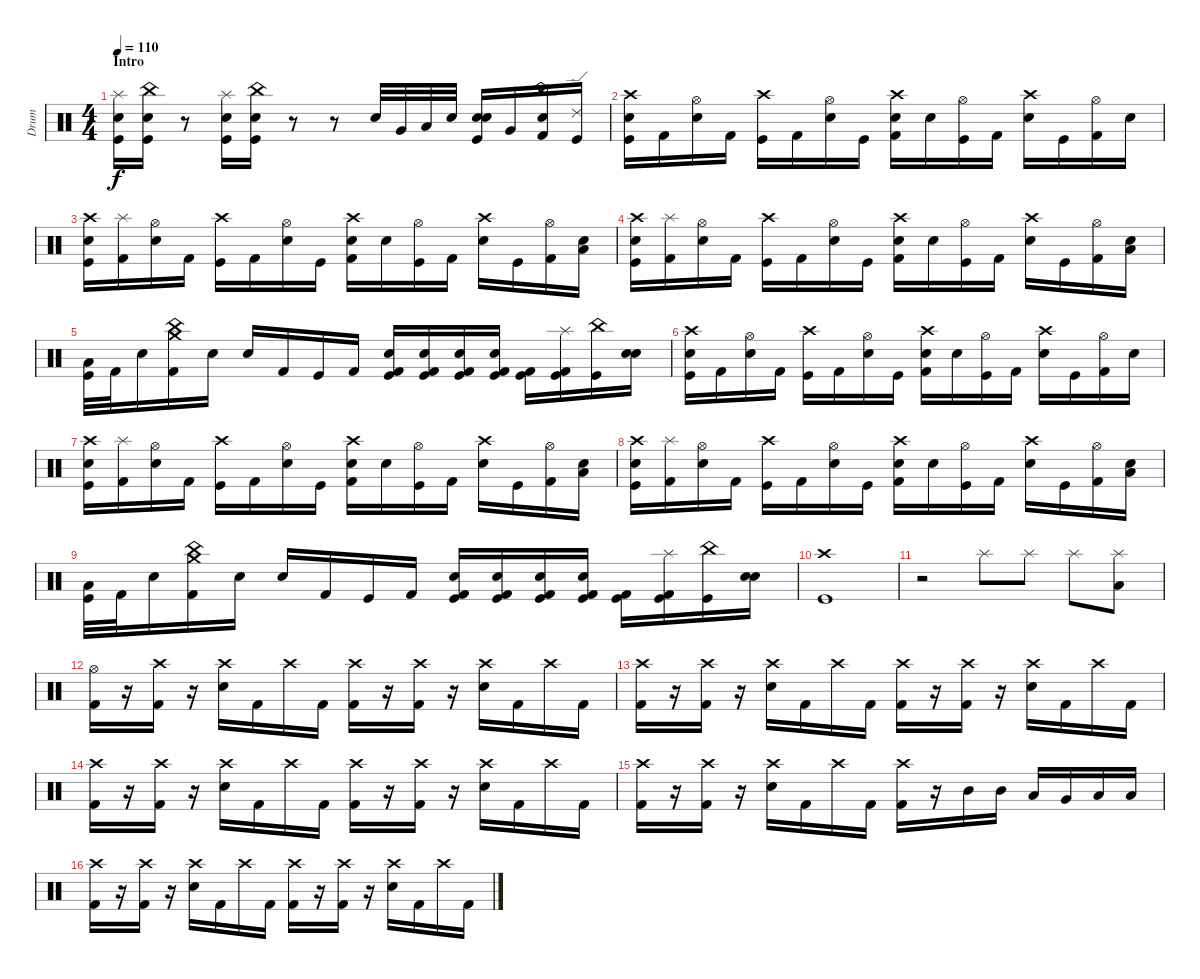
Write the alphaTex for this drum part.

\track ("Drum" "Drum") {instrument percussion}
\staff {score}
\articulation defaults
\ts (4 4)
\section ("" "Intro")
\tempo 110
\clef neutral
\ks c
("Splash (hit)" "Electric Snare (hit)" "Kick (hit)").16{dy f} ("China (hit)" "Electric Snare (hit)" "Kick (hit)").16 r.8 ("Splash (hit)" "Electric Snare (hit)" "Kick (hit)").16 ("China (hit)" "Electric Snare (hit)" "Kick (hit)").16 r.8 r.8 "Snare (hit) 2".32 "Very Low Tom (hit)".32 "Low Tom (hit)".32 "Electric Snare (hit)".32 ("Snare (hit)" "Electric Snare (hit)" "Kick (hit)").16 "Very Low Tom (hit)".16 ("China (hit)" "Electric Snare (hit)" "Kick (hit) 2").16 ("Ride (edge) 2" "Kick (hit)").16 |
("Crash high (hit)" "Snare (hit)" "Kick (hit)").16 "Kick (hit) 2".16 ("Hi-Hat (open)" "Snare (hit) 2").16 "Kick (hit) 2".16 ("Crash high (hit)" "Kick (hit)").16 "Kick (hit) 2".16 ("Hi-Hat (open)" "Snare (hit) 2").16 "Kick (hit)".16 ("Crash high (hit)" "Snare (hit)" "Kick (hit) 2").16 "Snare (hit) 2".16 ("Hi-Hat (open)" "Kick (hit)").16 "Kick (hit) 2".16 ("Crash high (hit)" "Snare (hit) 2").16 "Kick (hit)".16 ("Hi-Hat (open)" "Kick (hit) 2").16 "Snare (hit) 2".16 |
("Crash high (hit)" "Snare (hit)" "Kick (hit)").16 ("Splash (hit)" "Kick (hit) 2").16 ("Hi-Hat (open)" "Snare (hit) 2").16 "Kick (hit) 2".16 ("Crash high (hit)" "Kick (hit)").16 "Kick (hit) 2".16 ("Hi-Hat (open)" "Snare (hit) 2").16 "Kick (hit)".16 ("Crash high (hit)" "Snare (hit)" "Kick (hit) 2").16 "Snare (hit) 2".16 ("Hi-Hat (open)" "Kick (hit)").16 "Kick (hit) 2".16 ("Crash high (hit)" "Snare (hit) 2").16 "Kick (hit)".16 ("Hi-Hat (open)" "Kick (hit) 2").16 ("Low Tom (hit)" "Snare (hit) 2").16 |
("Crash high (hit)" "Snare (hit)" "Kick (hit)").16 ("Splash (hit)" "Kick (hit) 2").16 ("Hi-Hat (open)" "Snare (hit) 2").16 "Kick (hit) 2".16 ("Crash high (hit)" "Kick (hit)").16 "Kick (hit) 2".16 ("Hi-Hat (open)" "Snare (hit) 2").16 "Kick (hit)".16 ("Crash high (hit)" "Snare (hit)" "Kick (hit) 2").16 "Snare (hit) 2".16 ("Hi-Hat (open)" "Kick (hit)").16 "Kick (hit) 2".16 ("Crash high (hit)" "Snare (hit) 2").16 "Kick (hit)".16 ("Hi-Hat (open)" "Kick (hit) 2").16 ("Low Tom (hit)" "Snare (hit) 2").16 |
("Low Tom (hit)" "Kick (hit)").32 "Kick (hit) 2".32 "Snare (hit) 2".16 ("China (hit)" "Crash medium (hit)" "Kick (hit) 2").16 "Snare (hit) 2".16 "Snare (hit) 2".16 "Kick (hit) 2".16 "Kick (hit)".16 "Kick (hit) 2".16 ("Snare (hit) 2" "Kick (hit) 2" "Kick (hit)").16 ("Snare (hit) 2" "Kick (hit) 2" "Kick (hit)").16 ("Snare (hit) 2" "Kick (hit) 2" "Kick (hit)").16 ("Snare (hit) 2" "Kick (hit) 2" "Kick (hit)").16 ("Kick (hit) 2" "Kick (hit)").16 ("Splash (hit)" "Kick (hit) 2" "Kick (hit)").16 ("China (hit)" "Kick (hit)").16 ("Electric Snare (hit)" "Snare (hit) 2").16 |
("Crash high (hit)" "Snare (hit)" "Kick (hit)").16 "Kick (hit) 2".16 ("Hi-Hat (open)" "Snare (hit) 2").16 "Kick (hit) 2".16 ("Crash high (hit)" "Kick (hit)").16 "Kick (hit) 2".16 ("Hi-Hat (open)" "Snare (hit) 2").16 "Kick (hit)".16 ("Crash high (hit)" "Snare (hit)" "Kick (hit) 2").16 "Snare (hit) 2".16 ("Hi-Hat (open)" "Kick (hit)").16 "Kick (hit) 2".16 ("Crash high (hit)" "Snare (hit) 2").16 "Kick (hit)".16 ("Hi-Hat (open)" "Kick (hit) 2").16 "Snare (hit) 2".16 |
("Crash high (hit)" "Snare (hit)" "Kick (hit)").16 ("Splash (hit)" "Kick (hit) 2").16 ("Hi-Hat (open)" "Snare (hit) 2").16 "Kick (hit) 2".16 ("Crash high (hit)" "Kick (hit)").16 "Kick (hit) 2".16 ("Hi-Hat (open)" "Snare (hit) 2").16 "Kick (hit)".16 ("Crash high (hit)" "Snare (hit)" "Kick (hit) 2").16 "Snare (hit) 2".16 ("Hi-Hat (open)" "Kick (hit)").16 "Kick (hit) 2".16 ("Crash high (hit)" "Snare (hit) 2").16 "Kick (hit)".16 ("Hi-Hat (open)" "Kick (hit) 2").16 ("Low Tom (hit)" "Snare (hit) 2").16 |
("Crash high (hit)" "Snare (hit)" "Kick (hit)").16 ("Splash (hit)" "Kick (hit) 2").16 ("Hi-Hat (open)" "Snare (hit) 2").16 "Kick (hit) 2".16 ("Crash high (hit)" "Kick (hit)").16 "Kick (hit) 2".16 ("Hi-Hat (open)" "Snare (hit) 2").16 "Kick (hit)".16 ("Crash high (hit)" "Snare (hit)" "Kick (hit) 2").16 "Snare (hit) 2".16 ("Hi-Hat (open)" "Kick (hit)").16 "Kick (hit) 2".16 ("Crash high (hit)" "Snare (hit) 2").16 "Kick (hit)".16 ("Hi-Hat (open)" "Kick (hit) 2").16 ("Low Tom (hit)" "Snare (hit) 2").16 |
("Low Tom (hit)" "Kick (hit)").32 "Kick (hit) 2".32 "Snare (hit) 2".16 ("China (hit)" "Crash medium (hit)" "Kick (hit) 2").16 "Snare (hit) 2".16 "Snare (hit) 2".16 "Kick (hit) 2".16 "Kick (hit)".16 "Kick (hit) 2".16 ("Snare (hit) 2" "Kick (hit) 2" "Kick (hit)").16 ("Snare (hit) 2" "Kick (hit) 2" "Kick (hit)").16 ("Snare (hit) 2" "Kick (hit) 2" "Kick (hit)").16 ("Snare (hit) 2" "Kick (hit) 2" "Kick (hit)").16 ("Kick (hit) 2" "Kick (hit)").16 ("Splash (hit)" "Kick (hit) 2" "Kick (hit)").16 ("China (hit)" "Kick (hit)").16 ("Electric Snare (hit)" "Snare (hit) 2").16 |
("Crash high (hit)" "Kick (hit)").1 |
r.2 "Splash (hit)".8 "Splash (hit)".8 "Splash (hit)".8 ("Splash (hit)" "Low Tom (hit)").8 |
("Hi-Hat (open)" "Kick (hit) 2").16 r.16 ("Crash high (hit)" "Kick (hit) 2").16 r.16 ("Crash high (hit)" "Snare (hit) 2").16 "Kick (hit) 2".16 "Crash high (hit)".16 "Kick (hit) 2".16 ("Crash high (hit)" "Kick (hit) 2").16 r.16 ("Crash high (hit)" "Kick (hit) 2").16 r.16 ("Crash high (hit)" "Snare (hit) 2").16 "Kick (hit) 2".16 "Crash high (hit)".16 "Kick (hit) 2".16 |
("Crash high (hit)" "Kick (hit) 2").16 r.16 ("Crash high (hit)" "Kick (hit) 2").16 r.16 ("Crash high (hit)" "Snare (hit) 2").16 "Kick (hit) 2".16 "Crash high (hit)".16 "Kick (hit) 2".16 ("Crash high (hit)" "Kick (hit) 2").16 r.16 ("Crash high (hit)" "Kick (hit) 2").16 r.16 ("Crash high (hit)" "Snare (hit) 2").16 "Kick (hit) 2".16 "Crash high (hit)".16 "Kick (hit) 2".16 |
("Crash high (hit)" "Kick (hit) 2").16 r.16 ("Crash high (hit)" "Kick (hit) 2").16 r.16 ("Crash high (hit)" "Snare (hit) 2").16 "Kick (hit) 2".16 "Crash high (hit)".16 "Kick (hit) 2".16 ("Crash high (hit)" "Kick (hit) 2").16 r.16 ("Crash high (hit)" "Kick (hit) 2").16 r.16 ("Crash high (hit)" "Snare (hit) 2").16 "Kick (hit) 2".16 "Crash high (hit)".16 "Kick (hit) 2".16 |
("Crash high (hit)" "Kick (hit) 2").16 r.16 ("Crash high (hit)" "Kick (hit) 2").16 r.16 ("Crash high (hit)" "Snare (hit) 2").16 "Kick (hit) 2".16 "Crash high (hit)".16 "Kick (hit) 2".16 ("Crash high (hit)" "Kick (hit) 2").16 r.16 "Mid Tom (hit)".16 "Mid Tom (hit)".16 "Low Tom (hit)".16 "Very Low Tom (hit)".16 "Low Floor Tom (hit)".16 "Low Floor Tom (hit)".16 |
("Crash high (hit)" "Kick (hit) 2").16 r.16 ("Crash high (hit)" "Kick (hit) 2").16 r.16 ("Crash high (hit)" "Snare (hit) 2").16 "Kick (hit) 2".16 "Crash high (hit)".16 "Kick (hit) 2".16 ("Crash high (hit)" "Kick (hit) 2").16 r.16 ("Crash high (hit)" "Kick (hit) 2").16 r.16 ("Crash high (hit)" "Snare (hit) 2").16 "Kick (hit) 2".16 "Crash high (hit)".16 "Kick (hit) 2".16
